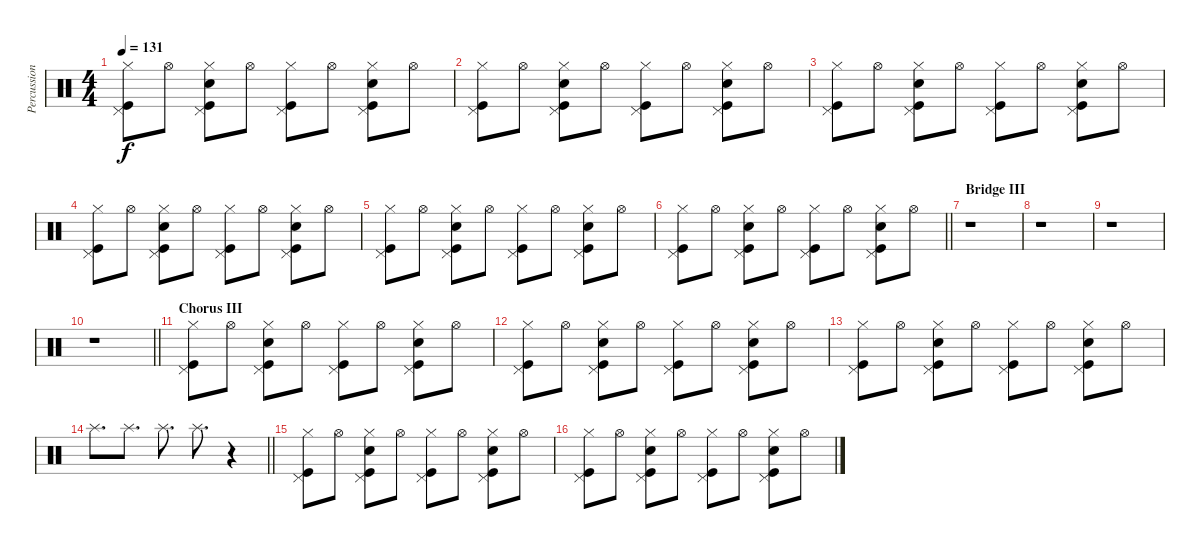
\track ("Percussion II" "Percussion") {instrument percussion}
\staff {score}
\articulation defaults
\ts (4 4)
\tempo 131
\clef neutral
\ks c
("Pedal Hi-Hat (hit)" "Hi-Hat (closed)" "Kick (hit)").8{dy f} "Hi-Hat (open)".8 ("Pedal Hi-Hat (hit)" "Hand Clap (hit)" "Hi-Hat (closed)" "Kick (hit)").8 "Hi-Hat (open)".8 ("Pedal Hi-Hat (hit)" "Hi-Hat (closed)" "Kick (hit)").8 "Hi-Hat (open)".8 ("Pedal Hi-Hat (hit)" "Hand Clap (hit)" "Hi-Hat (closed)" "Kick (hit)").8 "Hi-Hat (open)".8 |
("Pedal Hi-Hat (hit)" "Hi-Hat (closed)" "Kick (hit)").8 "Hi-Hat (open)".8 ("Pedal Hi-Hat (hit)" "Hand Clap (hit)" "Hi-Hat (closed)" "Kick (hit)").8 "Hi-Hat (open)".8 ("Pedal Hi-Hat (hit)" "Hi-Hat (closed)" "Kick (hit)").8 "Hi-Hat (open)".8 ("Pedal Hi-Hat (hit)" "Hand Clap (hit)" "Hi-Hat (closed)" "Kick (hit)").8 "Hi-Hat (open)".8 |
("Pedal Hi-Hat (hit)" "Hi-Hat (closed)" "Kick (hit)").8 "Hi-Hat (open)".8 ("Pedal Hi-Hat (hit)" "Hand Clap (hit)" "Hi-Hat (closed)" "Kick (hit)").8 "Hi-Hat (open)".8 ("Pedal Hi-Hat (hit)" "Hi-Hat (closed)" "Kick (hit)").8 "Hi-Hat (open)".8 ("Pedal Hi-Hat (hit)" "Hand Clap (hit)" "Hi-Hat (closed)" "Kick (hit)").8 "Hi-Hat (open)".8 |
("Pedal Hi-Hat (hit)" "Hi-Hat (closed)" "Kick (hit)").8 "Hi-Hat (open)".8 ("Pedal Hi-Hat (hit)" "Hand Clap (hit)" "Hi-Hat (closed)" "Kick (hit)").8 "Hi-Hat (open)".8 ("Pedal Hi-Hat (hit)" "Hi-Hat (closed)" "Kick (hit)").8 "Hi-Hat (open)".8 ("Pedal Hi-Hat (hit)" "Hand Clap (hit)" "Hi-Hat (closed)" "Kick (hit)").8 "Hi-Hat (open)".8 |
("Pedal Hi-Hat (hit)" "Hi-Hat (closed)" "Kick (hit)").8 "Hi-Hat (open)".8 ("Pedal Hi-Hat (hit)" "Hand Clap (hit)" "Hi-Hat (closed)" "Kick (hit)").8 "Hi-Hat (open)".8 ("Pedal Hi-Hat (hit)" "Hi-Hat (closed)" "Kick (hit)").8 "Hi-Hat (open)".8 ("Pedal Hi-Hat (hit)" "Hand Clap (hit)" "Hi-Hat (closed)" "Kick (hit)").8 "Hi-Hat (open)".8 |
\barLineRight lightlight
("Pedal Hi-Hat (hit)" "Hi-Hat (closed)" "Kick (hit)").8 "Hi-Hat (open)".8 ("Pedal Hi-Hat (hit)" "Hand Clap (hit)" "Hi-Hat (closed)" "Kick (hit)").8 "Hi-Hat (open)".8 ("Pedal Hi-Hat (hit)" "Hi-Hat (closed)" "Kick (hit)").8 "Hi-Hat (open)".8 ("Pedal Hi-Hat (hit)" "Hand Clap (hit)" "Hi-Hat (closed)" "Kick (hit)").8 "Hi-Hat (open)".8 |
\section ("" "Bridge III")
r.1 |
r.1 |
r.1 |
\barLineRight lightlight
r.1 |
\section ("" "Chorus III")
("Pedal Hi-Hat (hit)" "Hi-Hat (closed)" "Kick (hit)").8 "Hi-Hat (open)".8 ("Pedal Hi-Hat (hit)" "Hand Clap (hit)" "Hi-Hat (closed)" "Kick (hit)").8 "Hi-Hat (open)".8 ("Pedal Hi-Hat (hit)" "Hi-Hat (closed)" "Kick (hit)").8 "Hi-Hat (open)".8 ("Pedal Hi-Hat (hit)" "Hand Clap (hit)" "Hi-Hat (closed)" "Kick (hit)").8 "Hi-Hat (open)".8 |
("Pedal Hi-Hat (hit)" "Hi-Hat (closed)" "Kick (hit)").8 "Hi-Hat (open)".8 ("Pedal Hi-Hat (hit)" "Hand Clap (hit)" "Hi-Hat (closed)" "Kick (hit)").8 "Hi-Hat (open)".8 ("Pedal Hi-Hat (hit)" "Hi-Hat (closed)" "Kick (hit)").8 "Hi-Hat (open)".8 ("Pedal Hi-Hat (hit)" "Hand Clap (hit)" "Hi-Hat (closed)" "Kick (hit)").8 "Hi-Hat (open)".8 |
("Pedal Hi-Hat (hit)" "Hi-Hat (closed)" "Kick (hit)").8 "Hi-Hat (open)".8 ("Pedal Hi-Hat (hit)" "Hand Clap (hit)" "Hi-Hat (closed)" "Kick (hit)").8 "Hi-Hat (open)".8 ("Pedal Hi-Hat (hit)" "Hi-Hat (closed)" "Kick (hit)").8 "Hi-Hat (open)".8 ("Pedal Hi-Hat (hit)" "Hand Clap (hit)" "Hi-Hat (closed)" "Kick (hit)").8 "Hi-Hat (open)".8 |
\barLineRight lightlight "Splash (hit)".8{d} "Splash (hit)".8{d} "Splash (hit)".8{d} "Splash (hit)".8{d}
r.4 |
\section ("" "")
("Pedal Hi-Hat (hit)" "Hi-Hat (closed)" "Kick (hit)").8 "Hi-Hat (open)".8 ("Pedal Hi-Hat (hit)" "Hand Clap (hit)" "Hi-Hat (closed)" "Kick (hit)").8 "Hi-Hat (open)".8 ("Pedal Hi-Hat (hit)" "Hi-Hat (closed)" "Kick (hit)").8 "Hi-Hat (open)".8 ("Pedal Hi-Hat (hit)" "Hand Clap (hit)" "Hi-Hat (closed)" "Kick (hit)").8 "Hi-Hat (open)".8 |
("Pedal Hi-Hat (hit)" "Hi-Hat (closed)" "Kick (hit)").8 "Hi-Hat (open)".8 ("Pedal Hi-Hat (hit)" "Hand Clap (hit)" "Hi-Hat (closed)" "Kick (hit)").8 "Hi-Hat (open)".8 ("Pedal Hi-Hat (hit)" "Hi-Hat (closed)" "Kick (hit)").8 "Hi-Hat (open)".8 ("Pedal Hi-Hat (hit)" "Hand Clap (hit)" "Hi-Hat (closed)" "Kick (hit)").8 "Hi-Hat (open)".8
